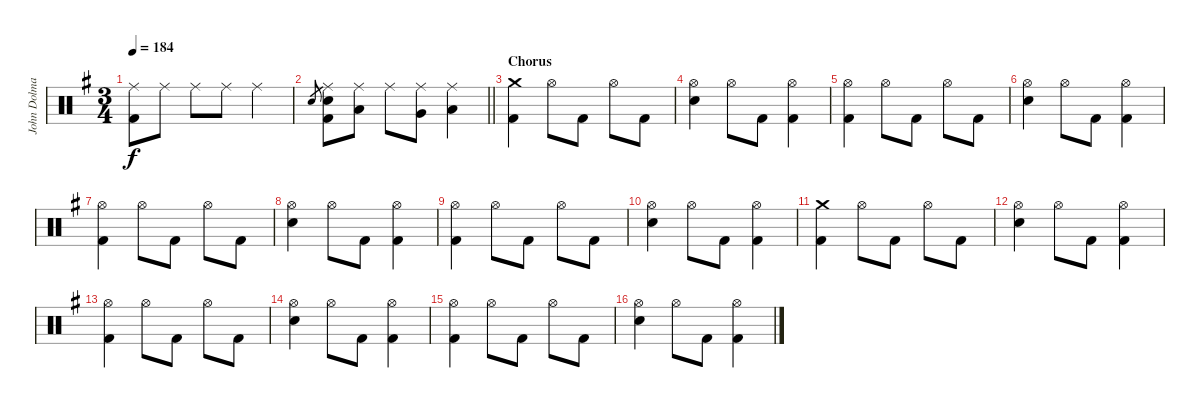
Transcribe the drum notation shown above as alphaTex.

\track ("John Dolmayan [Drums]" "John Dolma") {instrument percussion}
\staff {score}
\articulation defaults
\ts (3 4)
\tempo 184
\clef neutral
\ks eminor
("Ride (middle)" "Kick (hit) 2").8{dy f} "Ride (middle)".8 "Ride (middle)".8 "Ride (middle)".8 "Ride (middle)".4 |
\barLineRight lightlight "Electric Snare (hit)".8{gr}
("Ride (middle)" "Electric Snare (hit)" "Kick (hit) 2").8 ("Ride (middle)" "Low Tom (hit)").8 "Ride (middle)".8 ("Ride (middle)" "Very Low Tom (hit)").8 ("Ride (middle)" "Low Floor Tom (hit)").4 |
\section ("" "Chorus")
("Crash medium (hit)" "Kick (hit) 2").4 "Hi-Hat (open)".8 "Kick (hit) 2".8 "Hi-Hat (open)".8 "Kick (hit) 2".8 |
("Hi-Hat (open)" "Electric Snare (hit)").4 "Hi-Hat (open)".8 "Kick (hit) 2".8 ("Hi-Hat (open)" "Kick (hit) 2").4 |
("Hi-Hat (open)" "Kick (hit) 2").4 "Hi-Hat (open)".8 "Kick (hit) 2".8 "Hi-Hat (open)".8 "Kick (hit) 2".8 |
("Hi-Hat (open)" "Electric Snare (hit)").4 "Hi-Hat (open)".8 "Kick (hit) 2".8 ("Hi-Hat (open)" "Kick (hit) 2").4 |
("Hi-Hat (open)" "Kick (hit) 2").4 "Hi-Hat (open)".8 "Kick (hit) 2".8 "Hi-Hat (open)".8 "Kick (hit) 2".8 |
("Hi-Hat (open)" "Electric Snare (hit)").4 "Hi-Hat (open)".8 "Kick (hit) 2".8 ("Hi-Hat (open)" "Kick (hit) 2").4 |
("Hi-Hat (open)" "Kick (hit) 2").4 "Hi-Hat (open)".8 "Kick (hit) 2".8 "Hi-Hat (open)".8 "Kick (hit) 2".8 |
("Hi-Hat (open)" "Electric Snare (hit)").4 "Hi-Hat (open)".8 "Kick (hit) 2".8 ("Hi-Hat (open)" "Kick (hit) 2").4 |
("Crash medium (hit)" "Kick (hit) 2").4 "Hi-Hat (open)".8 "Kick (hit) 2".8 "Hi-Hat (open)".8 "Kick (hit) 2".8 |
("Hi-Hat (open)" "Electric Snare (hit)").4 "Hi-Hat (open)".8 "Kick (hit) 2".8 ("Hi-Hat (open)" "Kick (hit) 2").4 |
("Hi-Hat (open)" "Kick (hit) 2").4 "Hi-Hat (open)".8 "Kick (hit) 2".8 "Hi-Hat (open)".8 "Kick (hit) 2".8 |
("Hi-Hat (open)" "Electric Snare (hit)").4 "Hi-Hat (open)".8 "Kick (hit) 2".8 ("Hi-Hat (open)" "Kick (hit) 2").4 |
("Hi-Hat (open)" "Kick (hit) 2").4 "Hi-Hat (open)".8 "Kick (hit) 2".8 "Hi-Hat (open)".8 "Kick (hit) 2".8 |
("Hi-Hat (open)" "Electric Snare (hit)").4 "Hi-Hat (open)".8 "Kick (hit) 2".8 ("Hi-Hat (open)" "Kick (hit) 2").4
